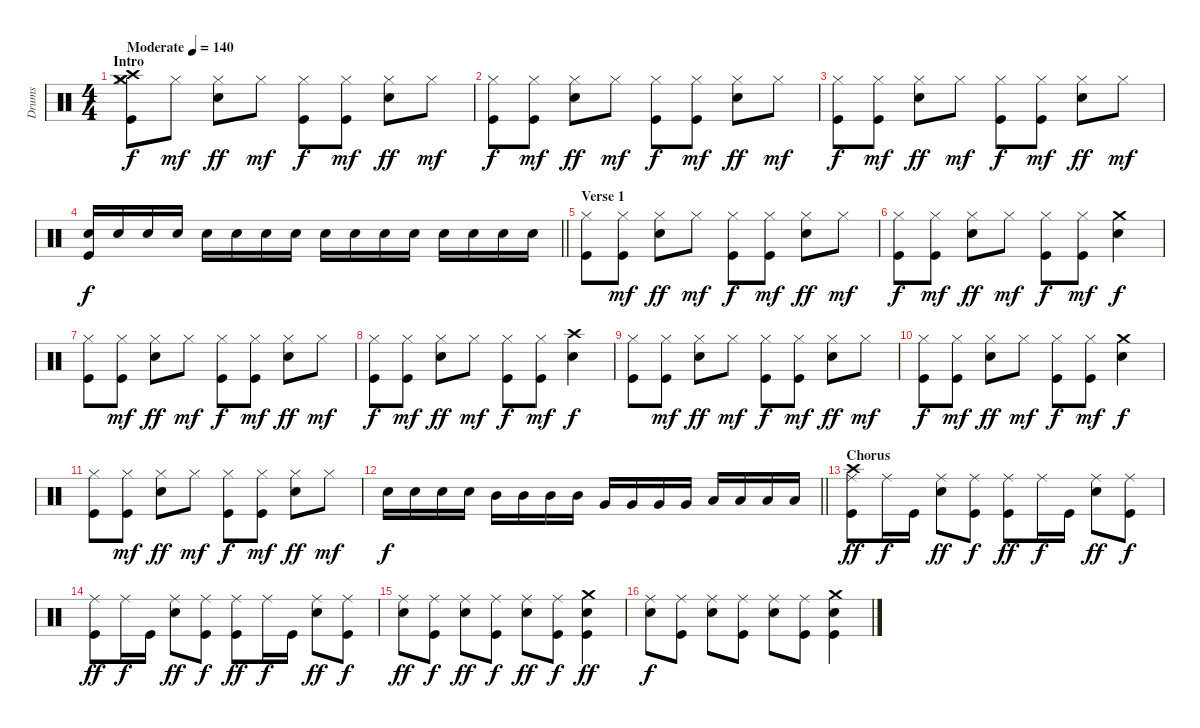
\track ("Drums" "Drums") {instrument percussion}
\staff {score}
\articulation defaults
\ts (4 4)
\section ("" "Intro")
\tempo (140 "Moderate")
\clef neutral
\ks c
("Crash medium (hit)" "Crash high (hit)" "Hi-Hat (closed)" "Kick (hit)").8{dy f} "Hi-Hat (closed)".8{dy mf} ("Snare (hit) 2" "Hi-Hat (closed)").8{dy ff} "Hi-Hat (closed)".8{dy mf} ("Hi-Hat (closed)" "Kick (hit)").8{dy f} ("Hi-Hat (closed)" "Kick (hit)").8{dy mf} ("Snare (hit) 2" "Hi-Hat (closed)").8{dy ff} "Hi-Hat (closed)".8{dy mf} |
("Hi-Hat (closed)" "Kick (hit)").8{dy f} ("Hi-Hat (closed)" "Kick (hit)").8{dy mf} ("Snare (hit) 2" "Hi-Hat (closed)").8{dy ff} "Hi-Hat (closed)".8{dy mf} ("Hi-Hat (closed)" "Kick (hit)").8{dy f} ("Hi-Hat (closed)" "Kick (hit)").8{dy mf} ("Snare (hit) 2" "Hi-Hat (closed)").8{dy ff} "Hi-Hat (closed)".8{dy mf} |
("Hi-Hat (closed)" "Kick (hit)").8{dy f} ("Hi-Hat (closed)" "Kick (hit)").8{dy mf} ("Snare (hit) 2" "Hi-Hat (closed)").8{dy ff} "Hi-Hat (closed)".8{dy mf} ("Hi-Hat (closed)" "Kick (hit)").8{dy f} ("Hi-Hat (closed)" "Kick (hit)").8{dy mf} ("Snare (hit) 2" "Hi-Hat (closed)").8{dy ff} "Hi-Hat (closed)".8{dy mf} |
\barLineRight lightlight
("Snare (hit) 2" "Kick (hit)").16{dy f} "Snare (hit) 2".16 "Snare (hit) 2".16 "Snare (hit) 2".16 "Snare (hit) 2".16 "Snare (hit) 2".16 "Snare (hit) 2".16 "Snare (hit) 2".16 "Snare (hit) 2".16 "Snare (hit) 2".16 "Snare (hit) 2".16 "Snare (hit) 2".16 "Snare (hit) 2".16 "Snare (hit) 2".16 "Snare (hit) 2".16 "Snare (hit) 2".16 |
\section ("" "Verse 1")
("Hi-Hat (closed)" "Kick (hit)").8 ("Hi-Hat (closed)" "Kick (hit)").8{dy mf} ("Snare (hit) 2" "Hi-Hat (closed)").8{dy ff} "Hi-Hat (closed)".8{dy mf} ("Hi-Hat (closed)" "Kick (hit)").8{dy f} ("Hi-Hat (closed)" "Kick (hit)").8{dy mf} ("Snare (hit) 2" "Hi-Hat (closed)").8{dy ff} "Hi-Hat (closed)".8{dy mf} |
("Hi-Hat (closed)" "Kick (hit)").8{dy f} ("Hi-Hat (closed)" "Kick (hit)").8{dy mf} ("Snare (hit) 2" "Hi-Hat (closed)").8{dy ff} "Hi-Hat (closed)".8{dy mf} ("Hi-Hat (closed)" "Kick (hit)").8{dy f} ("Hi-Hat (closed)" "Kick (hit)").8{dy mf} ("Crash medium (hit)" "Snare (hit) 2").4{dy f} |
("Hi-Hat (closed)" "Kick (hit)").8 ("Hi-Hat (closed)" "Kick (hit)").8{dy mf} ("Snare (hit) 2" "Hi-Hat (closed)").8{dy ff} "Hi-Hat (closed)".8{dy mf} ("Hi-Hat (closed)" "Kick (hit)").8{dy f} ("Hi-Hat (closed)" "Kick (hit)").8{dy mf} ("Snare (hit) 2" "Hi-Hat (closed)").8{dy ff} "Hi-Hat (closed)".8{dy mf} |
("Hi-Hat (closed)" "Kick (hit)").8{dy f} ("Hi-Hat (closed)" "Kick (hit)").8{dy mf} ("Snare (hit) 2" "Hi-Hat (closed)").8{dy ff} "Hi-Hat (closed)".8{dy mf} ("Hi-Hat (closed)" "Kick (hit)").8{dy f} ("Hi-Hat (closed)" "Kick (hit)").8{dy mf} ("Crash high (hit)" "Snare (hit) 2").4{dy f} |
("Hi-Hat (closed)" "Kick (hit)").8 ("Hi-Hat (closed)" "Kick (hit)").8{dy mf} ("Snare (hit) 2" "Hi-Hat (closed)").8{dy ff} "Hi-Hat (closed)".8{dy mf} ("Hi-Hat (closed)" "Kick (hit)").8{dy f} ("Hi-Hat (closed)" "Kick (hit)").8{dy mf} ("Snare (hit) 2" "Hi-Hat (closed)").8{dy ff} "Hi-Hat (closed)".8{dy mf} |
("Hi-Hat (closed)" "Kick (hit)").8{dy f} ("Hi-Hat (closed)" "Kick (hit)").8{dy mf} ("Snare (hit) 2" "Hi-Hat (closed)").8{dy ff} "Hi-Hat (closed)".8{dy mf} ("Hi-Hat (closed)" "Kick (hit)").8{dy f} ("Hi-Hat (closed)" "Kick (hit)").8{dy mf} ("Crash medium (hit)" "Snare (hit) 2").4{dy f} |
("Hi-Hat (closed)" "Kick (hit)").8 ("Hi-Hat (closed)" "Kick (hit)").8{dy mf} ("Snare (hit) 2" "Hi-Hat (closed)").8{dy ff} "Hi-Hat (closed)".8{dy mf} ("Hi-Hat (closed)" "Kick (hit)").8{dy f} ("Hi-Hat (closed)" "Kick (hit)").8{dy mf} ("Snare (hit) 2" "Hi-Hat (closed)").8{dy ff} "Hi-Hat (closed)".8{dy mf} |
\barLineRight lightlight "Snare (hit) 2".16{dy f} "Snare (hit) 2".16 "Snare (hit) 2".16 "Snare (hit) 2".16 "Mid Tom (hit)".16 "Mid Tom (hit)".16 "Mid Tom (hit)".16 "Mid Tom (hit)".16 "Very Low Tom (hit)".16 "Very Low Tom (hit)".16 "Very Low Tom (hit)".16 "Very Low Tom (hit)".16 "Low Floor Tom (hit)".16 "Low Floor Tom (hit)".16 "Low Floor Tom (hit)".16 "Low Floor Tom (hit)".16
|
\section ("" "Chorus")
("Ride (middle)" "Crash high (hit)" "Kick (hit)").8{dy ff} "Ride (middle)".16{dy f} "Kick (hit)".16 ("Ride (middle)" "Snare (hit) 2").8{dy ff} ("Ride (middle)" "Kick (hit)").8{dy f} ("Ride (middle)" "Kick (hit)").8{dy ff} "Ride (middle)".16{dy f} "Kick (hit)".16 ("Ride (middle)" "Snare (hit) 2").8{dy ff} ("Ride (middle)" "Kick (hit)").8{dy f} |
("Ride (middle)" "Kick (hit)").8{dy ff} "Ride (middle)".16{dy f} "Kick (hit)".16 ("Ride (middle)" "Snare (hit) 2").8{dy ff} ("Ride (middle)" "Kick (hit)").8{dy f} ("Ride (middle)" "Kick (hit)").8{dy ff} "Ride (middle)".16{dy f} "Kick (hit)".16 ("Ride (middle)" "Snare (hit) 2").8{dy ff} ("Ride (middle)" "Kick (hit)").8{dy f} |
("Ride (middle)" "Snare (hit) 2").8{dy ff} ("Ride (middle)" "Kick (hit)").8{dy f} ("Ride (middle)" "Snare (hit) 2").8{dy ff} ("Ride (middle)" "Kick (hit)").8{dy f} ("Ride (middle)" "Snare (hit) 2").8{dy ff} ("Ride (middle)" "Kick (hit)").8{dy f} ("Crash medium (hit)" "Snare (hit) 2" "Kick (hit)").4{dy ff} |
("Ride (middle)" "Snare (hit) 2").8{dy f} ("Ride (middle)" "Kick (hit)").8 ("Ride (middle)" "Snare (hit) 2").8 ("Ride (middle)" "Kick (hit)").8 ("Ride (middle)" "Snare (hit) 2").8 ("Ride (middle)" "Kick (hit)").8 ("Crash medium (hit)" "Snare (hit) 2" "Kick (hit)").4
